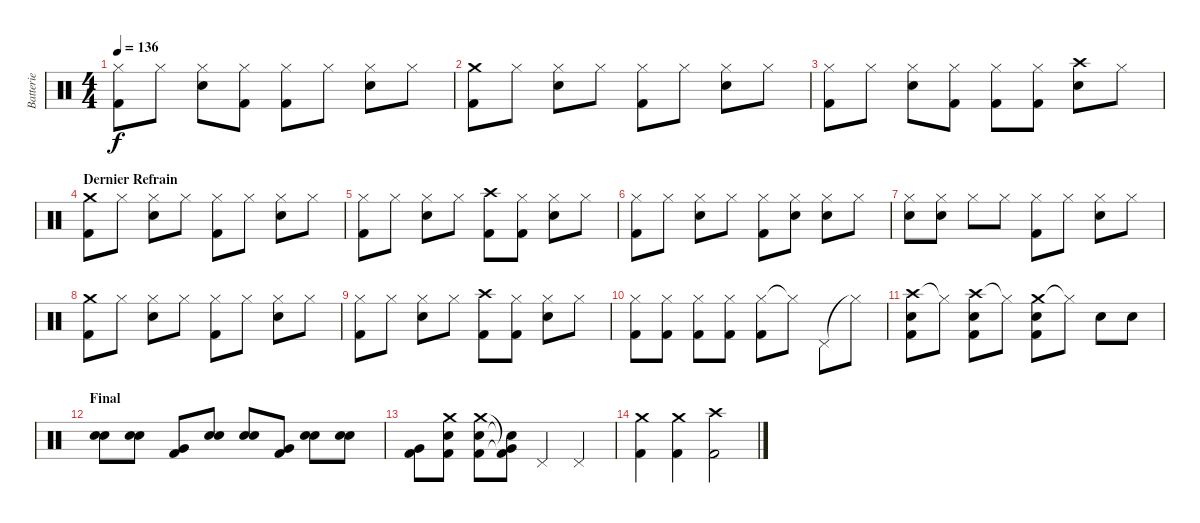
\track ("Batterie" "Batterie") {instrument percussion}
\staff {score}
\articulation defaults
\ts (4 4)
\tempo 136
\clef neutral
\ks c
("Hi-Hat (closed)" "Kick (hit) 2").8{dy f} "Hi-Hat (closed)".8 ("Hi-Hat (closed)" "Snare (hit) 2").8 ("Hi-Hat (closed)" "Kick (hit) 2").8 ("Hi-Hat (closed)" "Kick (hit) 2").8 "Hi-Hat (closed)".8 ("Hi-Hat (closed)" "Snare (hit) 2").8 "Hi-Hat (closed)".8 |
("Crash medium (hit)" "Kick (hit) 2").8 "Hi-Hat (closed)".8 ("Hi-Hat (closed)" "Snare (hit) 2").8 "Hi-Hat (closed)".8 ("Hi-Hat (closed)" "Kick (hit) 2").8 "Hi-Hat (closed)".8 ("Hi-Hat (closed)" "Snare (hit) 2").8 "Hi-Hat (closed)".8 |
("Hi-Hat (closed)" "Kick (hit) 2").8 "Hi-Hat (closed)".8 ("Hi-Hat (closed)" "Snare (hit) 2").8 ("Hi-Hat (closed)" "Kick (hit) 2").8 ("Hi-Hat (closed)" "Kick (hit) 2").8 ("Hi-Hat (closed)" "Kick (hit) 2").8 ("Crash high (hit)" "Snare (hit) 2").8 "Hi-Hat (closed)".8 |
\section ("" "Dernier Refrain")
("Crash medium (hit)" "Kick (hit) 2").8 "Hi-Hat (closed)".8 ("Hi-Hat (closed)" "Snare (hit) 2").8 "Hi-Hat (closed)".8 ("Hi-Hat (closed)" "Kick (hit) 2").8 "Hi-Hat (closed)".8 ("Hi-Hat (closed)" "Snare (hit) 2").8 "Hi-Hat (closed)".8 |
("Hi-Hat (closed)" "Kick (hit) 2").8 "Hi-Hat (closed)".8 ("Hi-Hat (closed)" "Snare (hit) 2").8 "Hi-Hat (closed)".8 ("Crash high (hit)" "Kick (hit) 2").8 ("Hi-Hat (closed)" "Kick (hit) 2").8 ("Hi-Hat (closed)" "Snare (hit) 2").8 "Hi-Hat (closed)".8 |
("Hi-Hat (closed)" "Kick (hit) 2").8 "Hi-Hat (closed)".8 ("Hi-Hat (closed)" "Snare (hit) 2").8 "Hi-Hat (closed)".8 ("Hi-Hat (closed)" "Kick (hit) 2").8 ("Hi-Hat (closed)" "Snare (hit) 2").8 ("Hi-Hat (closed)" "Snare (hit) 2").8 "Hi-Hat (closed)".8 |
("Hi-Hat (closed)" "Snare (hit) 2").8 ("Hi-Hat (closed)" "Snare (hit) 2").8 "Hi-Hat (closed)".8 "Hi-Hat (closed)".8 ("Hi-Hat (closed)" "Kick (hit) 2").8 "Hi-Hat (closed)".8 ("Hi-Hat (closed)" "Snare (hit) 2").8 "Hi-Hat (closed)".8 |
("Crash medium (hit)" "Kick (hit) 2").8 "Hi-Hat (closed)".8 ("Hi-Hat (closed)" "Snare (hit) 2").8 "Hi-Hat (closed)".8 ("Hi-Hat (closed)" "Kick (hit) 2").8 "Hi-Hat (closed)".8 ("Hi-Hat (closed)" "Snare (hit) 2").8 "Hi-Hat (closed)".8 |
("Hi-Hat (closed)" "Kick (hit) 2").8 "Hi-Hat (closed)".8 ("Hi-Hat (closed)" "Snare (hit) 2").8 "Hi-Hat (closed)".8 ("Crash high (hit)" "Kick (hit) 2").8 ("Hi-Hat (closed)" "Kick (hit) 2").8 ("Hi-Hat (closed)" "Snare (hit) 2").8 "Hi-Hat (closed)".8 |
("Hi-Hat (closed)" "Kick (hit) 2").8 ("Hi-Hat (closed)" "Kick (hit) 2").8 ("Hi-Hat (closed)" "Kick (hit) 2").8 ("Hi-Hat (closed)" "Kick (hit) 2").8 ("Hi-Hat (closed)" "Kick (hit) 2").8 "Hi-Hat (closed)"{t}.8 "Pedal Hi-Hat (hit)".8 "Hi-Hat (closed)"{t}.8 |
("Crash high (hit)" "Snare (hit) 2" "Kick (hit) 2").8 "Hi-Hat (closed)"{t}.8 ("Crash high (hit)" "Snare (hit) 2" "Kick (hit) 2").8 "Hi-Hat (closed)"{t}.8 ("Crash medium (hit)" "Snare (hit) 2" "Kick (hit) 2").8 "Hi-Hat (closed)"{t}.8 "Snare (hit) 2".8 "Snare (hit) 2".8 |
\section ("" "Final")
("Snare (hit) 2" "Snare (hit) 2").8 ("Snare (hit) 2" "Snare (hit) 2").8 ("Very Low Tom (hit)" "Kick (hit) 2").8 ("Snare (hit) 2" "Snare (hit) 2").8 ("Snare (hit) 2" "Snare (hit) 2").8 ("Very Low Tom (hit)" "Kick (hit) 2").8 ("Snare (hit) 2" "Snare (hit) 2").8 ("Snare (hit) 2" "Snare (hit) 2").8 |
("Very Low Tom (hit)" "Kick (hit) 2").8 ("Crash medium (hit)" "Snare (hit) 2" "Kick (hit) 2").8 ("Crash medium (hit)" "Snare (hit) 2" "Kick (hit) 2").8 ("Very Low Tom (hit)"{t} "Snare (hit)"{t} "Kick (hit) 2"{t}).8 "Pedal Hi-Hat (hit)".4 "Pedal Hi-Hat (hit)".4 |
("Crash medium (hit)" "Kick (hit) 2").4 ("Crash medium (hit)" "Kick (hit) 2").4 ("Crash high (hit)" "Kick (hit) 2").2
